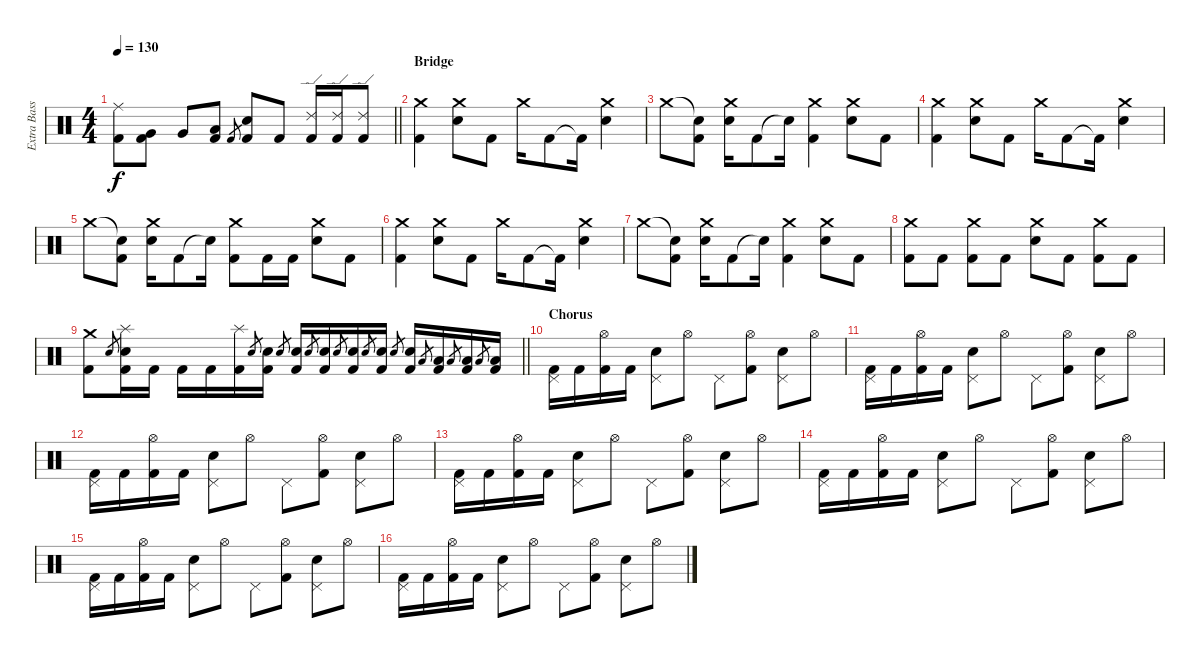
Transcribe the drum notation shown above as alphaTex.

\track ("Extra BassDrum" "Extra Bass") {instrument percussion}
\staff {score}
\articulation defaults
\ts (4 4)
\tempo 130
\clef neutral
\barLineRight lightlight
\ks c
("Ride (middle)" "Kick (hit) 2").8{dy f} ("Very Low Tom (hit)" "Kick (hit) 2").8 "Very Low Tom (hit)".8 ("Low Floor Tom (hit)" "Kick (hit) 2").8 "Kick (hit) 2".8{gr} ("Snare (hit) 2" "Kick (hit) 2").8 "Kick (hit) 2".8 ("Ride (edge) 2" "Kick (hit) 2").16 ("Ride (edge) 2" "Kick (hit) 2").16 ("Ride (edge) 2" "Kick (hit) 2").8 |
\section ("" "Bridge")
("Crash medium (hit)" "Kick (hit) 2").4 ("Crash medium (hit)" "Snare (hit) 2").8 "Kick (hit) 2".8 "Crash medium (hit)".16 "Kick (hit) 2".8 "Kick (hit) 2"{t}.16 ("Crash medium (hit)" "Snare (hit) 2").4 |
"Crash medium (hit)".8 ("Snare (hit)"{t} "Kick (hit) 2").8 ("Crash medium (hit)" "Snare (hit) 2").16 "Kick (hit) 2".8 "Snare (hit)"{t}.16 ("Crash medium (hit)" "Kick (hit) 2").4 ("Crash medium (hit)" "Snare (hit) 2").8 "Kick (hit) 2".8 |
("Crash medium (hit)" "Kick (hit) 2").4 ("Crash medium (hit)" "Snare (hit) 2").8 "Kick (hit) 2".8 "Crash medium (hit)".16 "Kick (hit) 2".8 "Kick (hit) 2"{t}.16 ("Crash medium (hit)" "Snare (hit) 2").4 |
"Crash medium (hit)".8 ("Snare (hit)"{t} "Kick (hit) 2").8 ("Crash medium (hit)" "Snare (hit) 2").16 "Kick (hit) 2".8 "Snare (hit)"{t}.16 ("Crash medium (hit)" "Kick (hit) 2").8 "Kick (hit) 2".16 "Kick (hit) 2".16 ("Crash medium (hit)" "Snare (hit) 2").8 "Kick (hit) 2".8 |
("Crash medium (hit)" "Kick (hit) 2").4 ("Crash medium (hit)" "Snare (hit) 2").8 "Kick (hit) 2".8 "Crash medium (hit)".16 "Kick (hit) 2".8 "Kick (hit) 2"{t}.16 ("Crash medium (hit)" "Snare (hit) 2").4 |
"Crash medium (hit)".8 ("Snare (hit)"{t} "Kick (hit) 2").8 ("Crash medium (hit)" "Snare (hit) 2").16 "Kick (hit) 2".8 "Snare (hit)"{t}.16 ("Crash medium (hit)" "Kick (hit) 2").4 ("Crash medium (hit)" "Snare (hit) 2").8 "Kick (hit) 2".8 |
("Crash medium (hit)" "Kick (hit) 2").8 "Kick (hit) 2".8 ("Crash medium (hit)" "Kick (hit) 2").8 "Kick (hit) 2".8 ("Crash medium (hit)" "Snare (hit) 2").8 "Kick (hit) 2".8 ("Crash medium (hit)" "Kick (hit) 2").8 "Kick (hit) 2".8 |
\barLineRight lightlight
("Crash medium (hit)" "Kick (hit) 2").8 "Snare (hit) 2".8{gr} ("Splash (hit)" "Snare (hit) 2" "Kick (hit) 2").16 "Kick (hit) 2".16 "Kick (hit) 2".16 "Kick (hit) 2".16 ("Splash (hit)" "Kick (hit) 2").16 "Snare (hit) 2".8{gr} ("Snare (hit) 2" "Kick (hit) 2").16 "Snare (hit) 2".8{gr} ("Snare (hit) 2" "Kick (hit) 2").16 "Snare (hit) 2".8{gr} ("Snare (hit) 2" "Kick (hit) 2").16 "Snare (hit) 2".8{gr} ("Snare (hit) 2" "Kick (hit) 2").16 "Snare (hit) 2".8{gr} ("Snare (hit) 2" "Kick (hit) 2").16 "Snare (hit) 2".8{gr} ("Snare (hit) 2" "Kick (hit) 2").16 "Low Tom (hit)".8{gr} ("Low Tom (hit)" "Kick (hit) 2").16 "Low Tom (hit)".8{gr} ("Low Tom (hit)" "Kick (hit) 2").16 "Low Tom (hit)".8{gr} ("Low Tom (hit)" "Kick (hit) 2").16 |
\section ("" "Chorus")
("Pedal Hi-Hat (hit)" "Kick (hit) 2").16 "Kick (hit) 2".16 ("Hi-Hat (open)" "Kick (hit) 2").16 "Kick (hit) 2".16 ("Pedal Hi-Hat (hit)" "Snare (hit) 2").8 "Hi-Hat (open)".8 "Pedal Hi-Hat (hit)".8 ("Hi-Hat (open)" "Kick (hit) 2").8 ("Pedal Hi-Hat (hit)" "Snare (hit) 2").8 "Hi-Hat (open)".8 |
("Pedal Hi-Hat (hit)" "Kick (hit) 2").16 "Kick (hit) 2".16 ("Hi-Hat (open)" "Kick (hit) 2").16 "Kick (hit) 2".16 ("Pedal Hi-Hat (hit)" "Snare (hit) 2").8 "Hi-Hat (open)".8 "Pedal Hi-Hat (hit)".8 ("Hi-Hat (open)" "Kick (hit) 2").8 ("Pedal Hi-Hat (hit)" "Snare (hit) 2").8 "Hi-Hat (open)".8 |
("Pedal Hi-Hat (hit)" "Kick (hit) 2").16 "Kick (hit) 2".16 ("Hi-Hat (open)" "Kick (hit) 2").16 "Kick (hit) 2".16 ("Pedal Hi-Hat (hit)" "Snare (hit) 2").8 "Hi-Hat (open)".8 "Pedal Hi-Hat (hit)".8 ("Hi-Hat (open)" "Kick (hit) 2").8 ("Pedal Hi-Hat (hit)" "Snare (hit) 2").8 "Hi-Hat (open)".8 |
("Pedal Hi-Hat (hit)" "Kick (hit) 2").16 "Kick (hit) 2".16 ("Hi-Hat (open)" "Kick (hit) 2").16 "Kick (hit) 2".16 ("Pedal Hi-Hat (hit)" "Snare (hit) 2").8 "Hi-Hat (open)".8 "Pedal Hi-Hat (hit)".8 ("Hi-Hat (open)" "Kick (hit) 2").8 ("Pedal Hi-Hat (hit)" "Snare (hit) 2").8 "Hi-Hat (open)".8 |
("Pedal Hi-Hat (hit)" "Kick (hit) 2").16 "Kick (hit) 2".16 ("Hi-Hat (open)" "Kick (hit) 2").16 "Kick (hit) 2".16 ("Pedal Hi-Hat (hit)" "Snare (hit) 2").8 "Hi-Hat (open)".8 "Pedal Hi-Hat (hit)".8 ("Hi-Hat (open)" "Kick (hit) 2").8 ("Pedal Hi-Hat (hit)" "Snare (hit) 2").8 "Hi-Hat (open)".8 |
("Pedal Hi-Hat (hit)" "Kick (hit) 2").16 "Kick (hit) 2".16 ("Hi-Hat (open)" "Kick (hit) 2").16 "Kick (hit) 2".16 ("Pedal Hi-Hat (hit)" "Snare (hit) 2").8 "Hi-Hat (open)".8 "Pedal Hi-Hat (hit)".8 ("Hi-Hat (open)" "Kick (hit) 2").8 ("Pedal Hi-Hat (hit)" "Snare (hit) 2").8 "Hi-Hat (open)".8 |
("Pedal Hi-Hat (hit)" "Kick (hit) 2").16 "Kick (hit) 2".16 ("Hi-Hat (open)" "Kick (hit) 2").16 "Kick (hit) 2".16 ("Pedal Hi-Hat (hit)" "Snare (hit) 2").8 "Hi-Hat (open)".8 "Pedal Hi-Hat (hit)".8 ("Hi-Hat (open)" "Kick (hit) 2").8 ("Pedal Hi-Hat (hit)" "Snare (hit) 2").8 "Hi-Hat (open)".8
